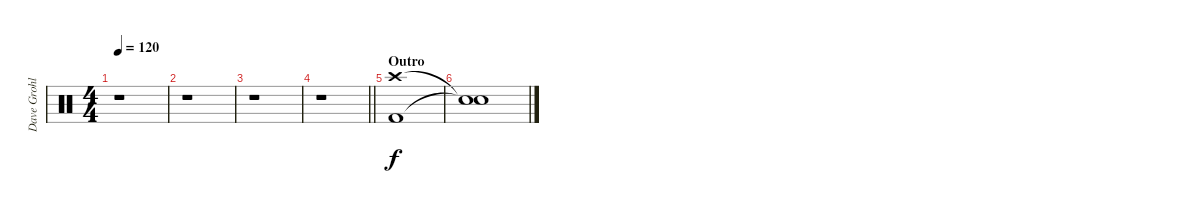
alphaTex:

\track ("Dave Grohl - Drums" "Dave Grohl") {instrument percussion}
\staff {score}
\articulation defaults
\ts (4 4)
\tempo 120
\clef neutral
\ks c
r.1{dy f} |
r.1 |
r.1 |
\barLineRight lightlight
r.1 |
\section ("" "Outro")
("Kick (hit) 2" "Crash high (hit)").1 |
("Snare (hit)"{t} "Snare (hit)"{t}).1
